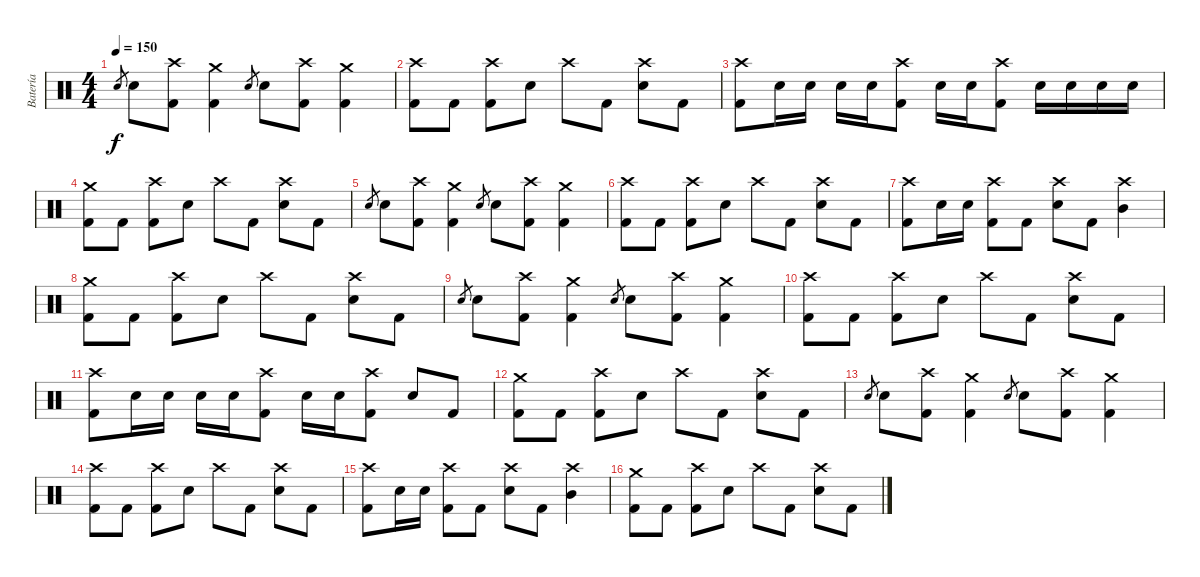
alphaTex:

\track ("Batería" "Batería") {instrument percussion}
\staff {score}
\articulation defaults
\ts (4 4)
\tempo 150
\clef neutral
\ks c "Electric Snare (hit)".8{gr dy f} "Electric Snare (hit)".8
("Crash high (hit)" "Kick (hit) 2").8 ("Crash medium (hit)" "Kick (hit) 2").4 "Electric Snare (hit)".8{gr} "Electric Snare (hit)".8 ("Crash high (hit)" "Kick (hit) 2").8 ("Crash medium (hit)" "Kick (hit) 2").4 |
("Crash high (hit)" "Kick (hit) 2").8 "Kick (hit) 2".8 ("Crash high (hit)" "Kick (hit) 2").8 "Electric Snare (hit)".8 "Crash high (hit)".8 "Kick (hit) 2".8 ("Crash high (hit)" "Electric Snare (hit)").8 "Kick (hit) 2".8 |
("Crash high (hit)" "Kick (hit) 2").8 "Electric Snare (hit)".16 "Electric Snare (hit)".16 "Electric Snare (hit)".16 "Electric Snare (hit)".16 ("Crash high (hit)" "Kick (hit) 2").8 "Electric Snare (hit)".16 "Electric Snare (hit)".16 ("Crash high (hit)" "Kick (hit) 2").8 "Electric Snare (hit)".16 "Electric Snare (hit)".16 "Electric Snare (hit)".16 "Electric Snare (hit)".16 |
("Crash medium (hit)" "Kick (hit) 2").8 "Kick (hit) 2".8 ("Crash high (hit)" "Kick (hit) 2").8 "Electric Snare (hit)".8 "Crash high (hit)".8 "Kick (hit) 2".8 ("Crash high (hit)" "Electric Snare (hit)").8 "Kick (hit) 2".8 |
"Electric Snare (hit)".8{gr} "Electric Snare (hit)".8 ("Crash high (hit)" "Kick (hit) 2").8 ("Crash medium (hit)" "Kick (hit) 2").4 "Electric Snare (hit)".8{gr} "Electric Snare (hit)".8 ("Crash high (hit)" "Kick (hit) 2").8 ("Crash medium (hit)" "Kick (hit) 2").4 |
("Crash high (hit)" "Kick (hit) 2").8 "Kick (hit) 2".8 ("Crash high (hit)" "Kick (hit) 2").8 "Electric Snare (hit)".8 "Crash high (hit)".8 "Kick (hit) 2".8 ("Crash high (hit)" "Electric Snare (hit)").8 "Kick (hit) 2".8 |
("Crash high (hit)" "Kick (hit) 2").8 "Electric Snare (hit)".16 "Electric Snare (hit)".16 ("Crash high (hit)" "Kick (hit) 2").8 "Kick (hit) 2".8 ("Crash high (hit)" "Electric Snare (hit)").8 "Kick (hit) 2".8 ("Crash high (hit)" "Mid Tom (hit)").4 |
("Crash medium (hit)" "Kick (hit) 2").8 "Kick (hit) 2".8 ("Crash high (hit)" "Kick (hit) 2").8 "Electric Snare (hit)".8 "Crash high (hit)".8 "Kick (hit) 2".8 ("Crash high (hit)" "Electric Snare (hit)").8 "Kick (hit) 2".8 |
"Electric Snare (hit)".8{gr} "Electric Snare (hit)".8 ("Crash high (hit)" "Kick (hit) 2").8 ("Crash medium (hit)" "Kick (hit) 2").4 "Electric Snare (hit)".8{gr} "Electric Snare (hit)".8 ("Crash high (hit)" "Kick (hit) 2").8 ("Crash medium (hit)" "Kick (hit) 2").4 |
("Crash high (hit)" "Kick (hit) 2").8 "Kick (hit) 2".8 ("Crash high (hit)" "Kick (hit) 2").8 "Electric Snare (hit)".8 "Crash high (hit)".8 "Kick (hit) 2".8 ("Crash high (hit)" "Electric Snare (hit)").8 "Kick (hit) 2".8 |
("Crash high (hit)" "Kick (hit) 2").8 "Electric Snare (hit)".16 "Electric Snare (hit)".16 "Electric Snare (hit)".16 "Electric Snare (hit)".16 ("Crash high (hit)" "Kick (hit) 2").8 "Electric Snare (hit)".16 "Electric Snare (hit)".16 ("Crash high (hit)" "Kick (hit) 2").8 "Electric Snare (hit)".8 "Kick (hit) 2".8 |
("Crash medium (hit)" "Kick (hit) 2").8 "Kick (hit) 2".8 ("Crash high (hit)" "Kick (hit) 2").8 "Electric Snare (hit)".8 "Crash high (hit)".8 "Kick (hit) 2".8 ("Crash high (hit)" "Electric Snare (hit)").8 "Kick (hit) 2".8 |
"Electric Snare (hit)".8{gr} "Electric Snare (hit)".8 ("Crash high (hit)" "Kick (hit) 2").8 ("Crash medium (hit)" "Kick (hit) 2").4 "Electric Snare (hit)".8{gr} "Electric Snare (hit)".8 ("Crash high (hit)" "Kick (hit) 2").8 ("Crash medium (hit)" "Kick (hit) 2").4 |
("Crash high (hit)" "Kick (hit) 2").8 "Kick (hit) 2".8 ("Crash high (hit)" "Kick (hit) 2").8 "Electric Snare (hit)".8 "Crash high (hit)".8 "Kick (hit) 2".8 ("Crash high (hit)" "Electric Snare (hit)").8 "Kick (hit) 2".8 |
("Crash high (hit)" "Kick (hit) 2").8 "Electric Snare (hit)".16 "Electric Snare (hit)".16 ("Crash high (hit)" "Kick (hit) 2").8 "Kick (hit) 2".8 ("Crash high (hit)" "Electric Snare (hit)").8 "Kick (hit) 2".8 ("Crash high (hit)" "Mid Tom (hit)").4 |
("Crash medium (hit)" "Kick (hit) 2").8 "Kick (hit) 2".8 ("Crash high (hit)" "Kick (hit) 2").8 "Electric Snare (hit)".8 "Crash high (hit)".8 "Kick (hit) 2".8 ("Crash high (hit)" "Electric Snare (hit)").8 "Kick (hit) 2".8
